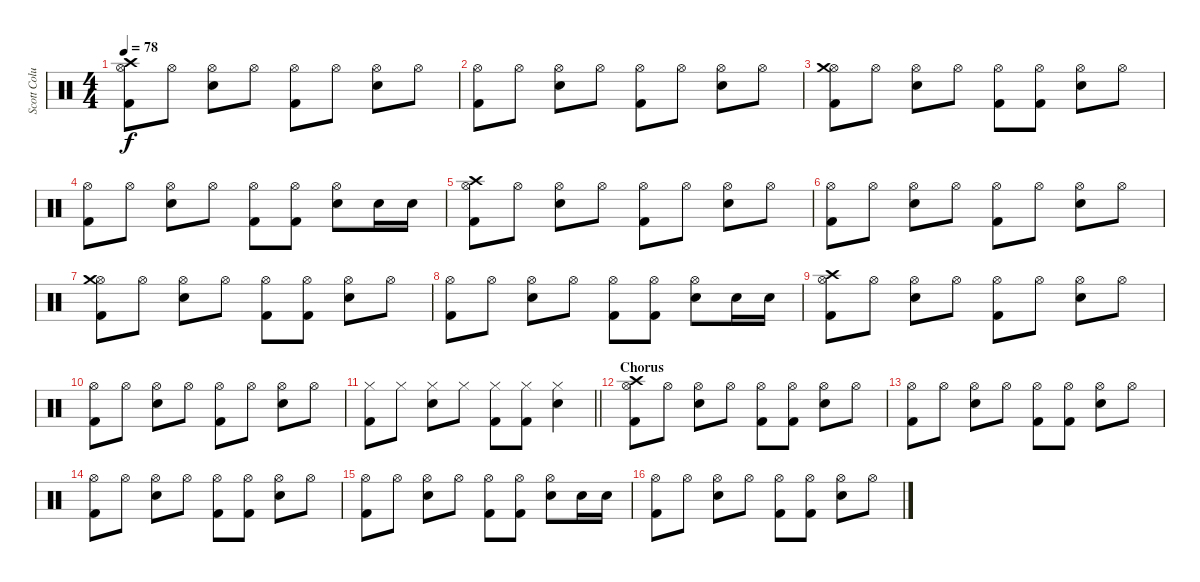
\track ("Scott Columbus" "Scott Colu") {instrument percussion}
\staff {score}
\articulation defaults
\ts (4 4)
\tempo 78
\clef neutral
\ks c
("Kick (hit) 2" "Hi-Hat (open)" "Crash high (hit)").8{dy f} "Hi-Hat (open)".8 ("Electric Snare (hit)" "Hi-Hat (open)").8 "Hi-Hat (open)".8 ("Kick (hit) 2" "Hi-Hat (open)").8 "Hi-Hat (open)".8 ("Electric Snare (hit)" "Hi-Hat (open)").8 "Hi-Hat (open)".8 |
("Kick (hit) 2" "Hi-Hat (open)").8 "Hi-Hat (open)".8 ("Electric Snare (hit)" "Hi-Hat (open)").8 "Hi-Hat (open)".8 ("Kick (hit) 2" "Hi-Hat (open)").8 "Hi-Hat (open)".8 ("Electric Snare (hit)" "Hi-Hat (open)").8 "Hi-Hat (open)".8 |
("Kick (hit) 2" "Hi-Hat (open)" "Crash medium (hit)").8 "Hi-Hat (open)".8 ("Electric Snare (hit)" "Hi-Hat (open)").8 "Hi-Hat (open)".8 ("Kick (hit) 2" "Hi-Hat (open)").8 ("Kick (hit) 2" "Hi-Hat (open)").8 ("Electric Snare (hit)" "Hi-Hat (open)").8 "Hi-Hat (open)".8 |
("Kick (hit) 2" "Hi-Hat (open)").8 "Hi-Hat (open)".8 ("Electric Snare (hit)" "Hi-Hat (open)").8 "Hi-Hat (open)".8 ("Kick (hit) 2" "Hi-Hat (open)").8 ("Kick (hit) 2" "Hi-Hat (open)").8 ("Electric Snare (hit)" "Hi-Hat (open)").8 "Electric Snare (hit)".16 "Electric Snare (hit)".16 |
("Kick (hit) 2" "Hi-Hat (open)" "Crash high (hit)").8 "Hi-Hat (open)".8 ("Electric Snare (hit)" "Hi-Hat (open)").8 "Hi-Hat (open)".8 ("Kick (hit) 2" "Hi-Hat (open)").8 "Hi-Hat (open)".8 ("Electric Snare (hit)" "Hi-Hat (open)").8 "Hi-Hat (open)".8 |
("Kick (hit) 2" "Hi-Hat (open)").8 "Hi-Hat (open)".8 ("Electric Snare (hit)" "Hi-Hat (open)").8 "Hi-Hat (open)".8 ("Kick (hit) 2" "Hi-Hat (open)").8 "Hi-Hat (open)".8 ("Electric Snare (hit)" "Hi-Hat (open)").8 "Hi-Hat (open)".8 |
("Kick (hit) 2" "Hi-Hat (open)" "Crash medium (hit)").8 "Hi-Hat (open)".8 ("Electric Snare (hit)" "Hi-Hat (open)").8 "Hi-Hat (open)".8 ("Kick (hit) 2" "Hi-Hat (open)").8 ("Kick (hit) 2" "Hi-Hat (open)").8 ("Electric Snare (hit)" "Hi-Hat (open)").8 "Hi-Hat (open)".8 |
("Kick (hit) 2" "Hi-Hat (open)").8 "Hi-Hat (open)".8 ("Electric Snare (hit)" "Hi-Hat (open)").8 "Hi-Hat (open)".8 ("Kick (hit) 2" "Hi-Hat (open)").8 ("Kick (hit) 2" "Hi-Hat (open)").8 ("Electric Snare (hit)" "Hi-Hat (open)").8 "Electric Snare (hit)".16 "Electric Snare (hit)".16 |
("Kick (hit) 2" "Hi-Hat (open)" "Crash high (hit)").8 "Hi-Hat (open)".8 ("Electric Snare (hit)" "Hi-Hat (open)").8 "Hi-Hat (open)".8 ("Kick (hit) 2" "Hi-Hat (open)").8 "Hi-Hat (open)".8 ("Electric Snare (hit)" "Hi-Hat (open)").8 "Hi-Hat (open)".8 |
("Kick (hit) 2" "Hi-Hat (open)").8 "Hi-Hat (open)".8 ("Electric Snare (hit)" "Hi-Hat (open)").8 "Hi-Hat (open)".8 ("Kick (hit) 2" "Hi-Hat (open)").8 "Hi-Hat (open)".8 ("Electric Snare (hit)" "Hi-Hat (open)").8 "Hi-Hat (open)".8 |
\barLineRight lightlight
("Kick (hit) 2" "Hi-Hat (closed)").8 "Hi-Hat (closed)".8 ("Electric Snare (hit)" "Hi-Hat (closed)").8 "Hi-Hat (closed)".8 ("Kick (hit) 2" "Hi-Hat (closed)").8 ("Kick (hit) 2" "Hi-Hat (closed)").8 ("Electric Snare (hit)" "Hi-Hat (closed)").4 |
\section ("" "Chorus")
("Kick (hit) 2" "Hi-Hat (open)" "Crash high (hit)").8 "Hi-Hat (open)".8 ("Electric Snare (hit)" "Hi-Hat (open)").8 "Hi-Hat (open)".8 ("Kick (hit) 2" "Hi-Hat (open)").8 ("Kick (hit) 2" "Hi-Hat (open)").8 ("Electric Snare (hit)" "Hi-Hat (open)").8 "Hi-Hat (open)".8 |
("Kick (hit) 2" "Hi-Hat (open)").8 "Hi-Hat (open)".8 ("Electric Snare (hit)" "Hi-Hat (open)").8 "Hi-Hat (open)".8 ("Kick (hit) 2" "Hi-Hat (open)").8 ("Kick (hit) 2" "Hi-Hat (open)").8 ("Electric Snare (hit)" "Hi-Hat (open)").8 "Hi-Hat (open)".8 |
("Kick (hit) 2" "Hi-Hat (open)").8 "Hi-Hat (open)".8 ("Electric Snare (hit)" "Hi-Hat (open)").8 "Hi-Hat (open)".8 ("Kick (hit) 2" "Hi-Hat (open)").8 ("Kick (hit) 2" "Hi-Hat (open)").8 ("Electric Snare (hit)" "Hi-Hat (open)").8 "Hi-Hat (open)".8 |
("Kick (hit) 2" "Hi-Hat (open)").8 "Hi-Hat (open)".8 ("Electric Snare (hit)" "Hi-Hat (open)").8 "Hi-Hat (open)".8 ("Kick (hit) 2" "Hi-Hat (open)").8 ("Kick (hit) 2" "Hi-Hat (open)").8 ("Electric Snare (hit)" "Hi-Hat (open)").8 "Electric Snare (hit)".16 "Electric Snare (hit)".16 |
("Kick (hit) 2" "Hi-Hat (open)").8 "Hi-Hat (open)".8 ("Electric Snare (hit)" "Hi-Hat (open)").8 "Hi-Hat (open)".8 ("Kick (hit) 2" "Hi-Hat (open)").8 ("Kick (hit) 2" "Hi-Hat (open)").8 ("Electric Snare (hit)" "Hi-Hat (open)").8 "Hi-Hat (open)".8
